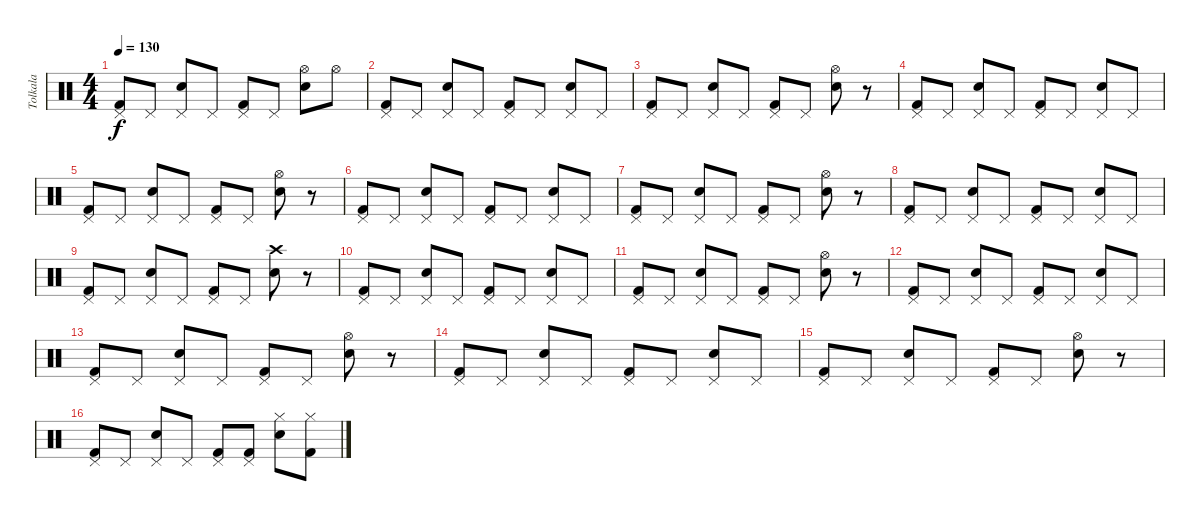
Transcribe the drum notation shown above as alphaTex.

\track ("Tolkala" "Tolkala") {instrument percussion}
\staff {score}
\articulation defaults
\ts (4 4)
\tempo 130
\clef neutral
\ks c
("Pedal Hi-Hat (hit)" "Kick (hit) 2").8{dy f} "Pedal Hi-Hat (hit)".8 ("Pedal Hi-Hat (hit)" "Snare (hit) 2").8 "Pedal Hi-Hat (hit)".8 ("Pedal Hi-Hat (hit)" "Kick (hit) 2").8 "Pedal Hi-Hat (hit)".8 ("Hi-Hat (open)" "Snare (hit) 2").8 "Hi-Hat (open)".8 |
("Pedal Hi-Hat (hit)" "Kick (hit) 2").8 "Pedal Hi-Hat (hit)".8 ("Pedal Hi-Hat (hit)" "Snare (hit) 2").8 "Pedal Hi-Hat (hit)".8 ("Pedal Hi-Hat (hit)" "Kick (hit) 2").8 "Pedal Hi-Hat (hit)".8 ("Pedal Hi-Hat (hit)" "Snare (hit) 2").8 "Pedal Hi-Hat (hit)".8 |
("Pedal Hi-Hat (hit)" "Kick (hit) 2").8 "Pedal Hi-Hat (hit)".8 ("Pedal Hi-Hat (hit)" "Snare (hit) 2").8 "Pedal Hi-Hat (hit)".8 ("Pedal Hi-Hat (hit)" "Kick (hit) 2").8 "Pedal Hi-Hat (hit)".8 ("Hi-Hat (open)" "Snare (hit) 2").8 r.8 |
("Pedal Hi-Hat (hit)" "Kick (hit) 2").8 "Pedal Hi-Hat (hit)".8 ("Pedal Hi-Hat (hit)" "Snare (hit) 2").8 "Pedal Hi-Hat (hit)".8 ("Pedal Hi-Hat (hit)" "Kick (hit) 2").8 "Pedal Hi-Hat (hit)".8 ("Pedal Hi-Hat (hit)" "Snare (hit) 2").8 "Pedal Hi-Hat (hit)".8 |
("Pedal Hi-Hat (hit)" "Kick (hit) 2").8 "Pedal Hi-Hat (hit)".8 ("Pedal Hi-Hat (hit)" "Snare (hit) 2").8 "Pedal Hi-Hat (hit)".8 ("Pedal Hi-Hat (hit)" "Kick (hit) 2").8 "Pedal Hi-Hat (hit)".8 ("Hi-Hat (open)" "Snare (hit) 2").8 r.8 |
("Pedal Hi-Hat (hit)" "Kick (hit) 2").8 "Pedal Hi-Hat (hit)".8 ("Pedal Hi-Hat (hit)" "Snare (hit) 2").8 "Pedal Hi-Hat (hit)".8 ("Pedal Hi-Hat (hit)" "Kick (hit) 2").8 "Pedal Hi-Hat (hit)".8 ("Pedal Hi-Hat (hit)" "Snare (hit) 2").8 "Pedal Hi-Hat (hit)".8 |
("Pedal Hi-Hat (hit)" "Kick (hit) 2").8 "Pedal Hi-Hat (hit)".8 ("Pedal Hi-Hat (hit)" "Snare (hit) 2").8 "Pedal Hi-Hat (hit)".8 ("Pedal Hi-Hat (hit)" "Kick (hit) 2").8 "Pedal Hi-Hat (hit)".8 ("Hi-Hat (open)" "Snare (hit) 2").8 r.8 |
("Pedal Hi-Hat (hit)" "Kick (hit) 2").8 "Pedal Hi-Hat (hit)".8 ("Pedal Hi-Hat (hit)" "Snare (hit) 2").8 "Pedal Hi-Hat (hit)".8 ("Pedal Hi-Hat (hit)" "Kick (hit) 2").8 "Pedal Hi-Hat (hit)".8 ("Pedal Hi-Hat (hit)" "Snare (hit) 2").8 "Pedal Hi-Hat (hit)".8 |
("Pedal Hi-Hat (hit)" "Kick (hit) 2").8 "Pedal Hi-Hat (hit)".8 ("Pedal Hi-Hat (hit)" "Snare (hit) 2").8 "Pedal Hi-Hat (hit)".8 ("Pedal Hi-Hat (hit)" "Kick (hit) 2").8 "Pedal Hi-Hat (hit)".8 ("Crash high (hit)" "Snare (hit) 2").8 r.8 |
("Pedal Hi-Hat (hit)" "Kick (hit) 2").8 "Pedal Hi-Hat (hit)".8 ("Pedal Hi-Hat (hit)" "Snare (hit) 2").8 "Pedal Hi-Hat (hit)".8 ("Pedal Hi-Hat (hit)" "Kick (hit) 2").8 "Pedal Hi-Hat (hit)".8 ("Pedal Hi-Hat (hit)" "Snare (hit) 2").8 "Pedal Hi-Hat (hit)".8 |
("Pedal Hi-Hat (hit)" "Kick (hit) 2").8 "Pedal Hi-Hat (hit)".8 ("Pedal Hi-Hat (hit)" "Snare (hit) 2").8 "Pedal Hi-Hat (hit)".8 ("Pedal Hi-Hat (hit)" "Kick (hit) 2").8 "Pedal Hi-Hat (hit)".8 ("Hi-Hat (open)" "Snare (hit) 2").8 r.8 |
("Pedal Hi-Hat (hit)" "Kick (hit) 2").8 "Pedal Hi-Hat (hit)".8 ("Pedal Hi-Hat (hit)" "Snare (hit) 2").8 "Pedal Hi-Hat (hit)".8 ("Pedal Hi-Hat (hit)" "Kick (hit) 2").8 "Pedal Hi-Hat (hit)".8 ("Pedal Hi-Hat (hit)" "Snare (hit) 2").8 "Pedal Hi-Hat (hit)".8 |
("Pedal Hi-Hat (hit)" "Kick (hit) 2").8 "Pedal Hi-Hat (hit)".8 ("Pedal Hi-Hat (hit)" "Snare (hit) 2").8 "Pedal Hi-Hat (hit)".8 ("Pedal Hi-Hat (hit)" "Kick (hit) 2").8 "Pedal Hi-Hat (hit)".8 ("Hi-Hat (open)" "Snare (hit) 2").8 r.8 |
("Pedal Hi-Hat (hit)" "Kick (hit) 2").8 "Pedal Hi-Hat (hit)".8 ("Pedal Hi-Hat (hit)" "Snare (hit) 2").8 "Pedal Hi-Hat (hit)".8 ("Pedal Hi-Hat (hit)" "Kick (hit) 2").8 "Pedal Hi-Hat (hit)".8 ("Pedal Hi-Hat (hit)" "Snare (hit) 2").8 "Pedal Hi-Hat (hit)".8 |
("Pedal Hi-Hat (hit)" "Kick (hit) 2").8 "Pedal Hi-Hat (hit)".8 ("Pedal Hi-Hat (hit)" "Snare (hit) 2").8 "Pedal Hi-Hat (hit)".8 ("Pedal Hi-Hat (hit)" "Kick (hit) 2").8 "Pedal Hi-Hat (hit)".8 ("Hi-Hat (open)" "Snare (hit) 2").8 r.8 |
("Pedal Hi-Hat (hit)" "Kick (hit) 2").8 "Pedal Hi-Hat (hit)".8 ("Pedal Hi-Hat (hit)" "Snare (hit) 2").8 "Pedal Hi-Hat (hit)".8 ("Pedal Hi-Hat (hit)" "Kick (hit) 2").8 ("Pedal Hi-Hat (hit)" "Kick (hit) 2").8 ("Hi-Hat (closed)" "Snare (hit) 2").8 ("Hi-Hat (closed)" "Kick (hit) 2").8
